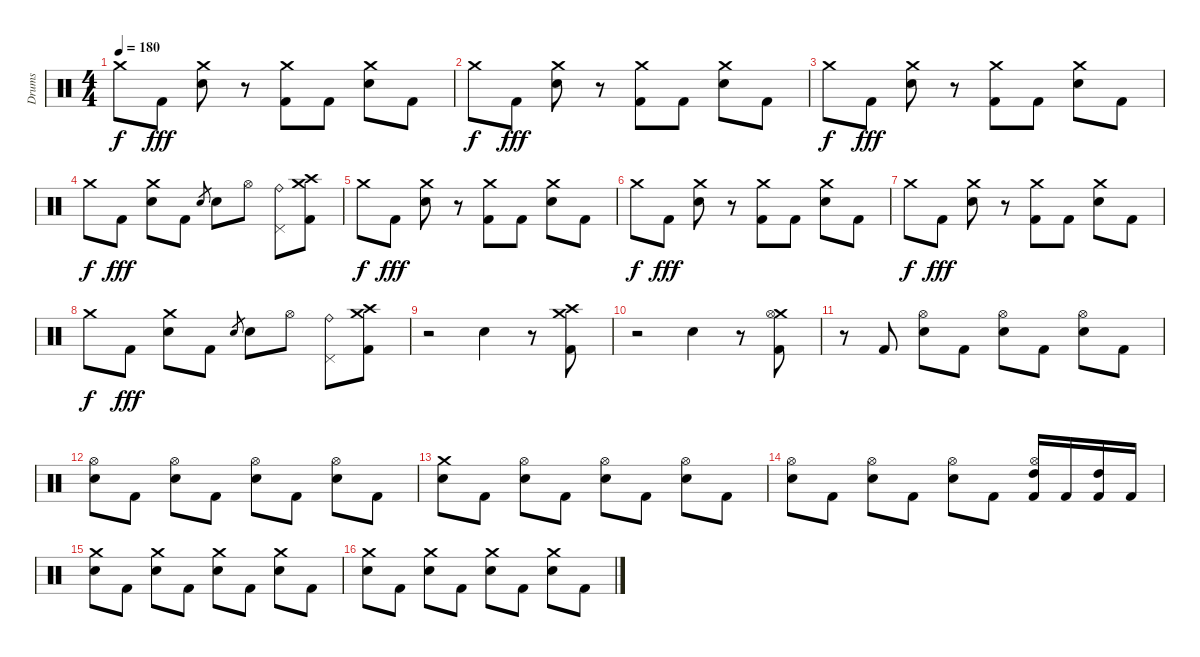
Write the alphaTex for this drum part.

\track ("Drums" "Drums") {instrument percussion}
\staff {score}
\articulation defaults
\ts (4 4)
\tempo 180
\clef neutral
\ks c "Crash medium (hit)".8{dy f} "Kick (hit) 2".8{dy fff}
("Crash medium (hit)" "Electric Snare (hit)").8 r.8 ("Crash medium (hit)" "Kick (hit) 2").8 "Kick (hit) 2".8 ("Crash medium (hit)" "Electric Snare (hit)").8 "Kick (hit) 2".8 |
"Crash medium (hit)".8{dy f} "Kick (hit) 2".8{dy fff} ("Crash medium (hit)" "Electric Snare (hit)").8 r.8 ("Crash medium (hit)" "Kick (hit) 2").8 "Kick (hit) 2".8 ("Crash medium (hit)" "Electric Snare (hit)").8 "Kick (hit) 2".8 |
"Crash medium (hit)".8{dy f} "Kick (hit) 2".8{dy fff} ("Crash medium (hit)" "Electric Snare (hit)").8 r.8 ("Crash medium (hit)" "Kick (hit) 2").8 "Kick (hit) 2".8 ("Crash medium (hit)" "Electric Snare (hit)").8 "Kick (hit) 2".8 |
"Crash medium (hit)".8{dy f} "Kick (hit) 2".8{dy fff} ("Crash medium (hit)" "Electric Snare (hit)").8 "Kick (hit) 2".8 "Electric Snare (hit)".8{gr} "Electric Snare (hit)".8 "Hi-Hat (open)".8 ("Ride (bell)" "Pedal Hi-Hat (hit)").8 ("Crash medium (hit)" "Crash high (hit)" "Kick (hit) 2").8 |
"Crash medium (hit)".8{dy f} "Kick (hit) 2".8{dy fff} ("Crash medium (hit)" "Electric Snare (hit)").8 r.8 ("Crash medium (hit)" "Kick (hit) 2").8 "Kick (hit) 2".8 ("Crash medium (hit)" "Electric Snare (hit)").8 "Kick (hit) 2".8 |
"Crash medium (hit)".8{dy f} "Kick (hit) 2".8{dy fff} ("Crash medium (hit)" "Electric Snare (hit)").8 r.8 ("Crash medium (hit)" "Kick (hit) 2").8 "Kick (hit) 2".8 ("Crash medium (hit)" "Electric Snare (hit)").8 "Kick (hit) 2".8 |
"Crash medium (hit)".8{dy f} "Kick (hit) 2".8{dy fff} ("Crash medium (hit)" "Electric Snare (hit)").8 r.8 ("Crash medium (hit)" "Kick (hit) 2").8 "Kick (hit) 2".8 ("Crash medium (hit)" "Electric Snare (hit)").8 "Kick (hit) 2".8 |
"Crash medium (hit)".8{dy f} "Kick (hit) 2".8{dy fff} ("Crash medium (hit)" "Electric Snare (hit)").8 "Kick (hit) 2".8 "Electric Snare (hit)".8{gr} "Electric Snare (hit)".8 "Hi-Hat (open)".8 ("Ride (bell)" "Pedal Hi-Hat (hit)").8 ("Crash medium (hit)" "Crash high (hit)" "Kick (hit) 2").8 |
r.2 "Electric Snare (hit)".4 r.8 ("Crash medium (hit)" "Crash high (hit)" "Kick (hit) 2").8 |
r.2 "Electric Snare (hit)".4 r.8 ("Crash medium (hit)" "Hi-Hat (open)" "Kick (hit) 2").8 |
r.8 "Kick (hit) 2".8 ("Hi-Hat (open)" "Electric Snare (hit)").8 "Kick (hit) 2".8 ("Hi-Hat (open)" "Electric Snare (hit)").8 "Kick (hit) 2".8 ("Hi-Hat (open)" "Electric Snare (hit)").8 "Kick (hit) 2".8 |
("Hi-Hat (open)" "Electric Snare (hit)").8 "Kick (hit) 2".8 ("Hi-Hat (open)" "Electric Snare (hit)").8 "Kick (hit) 2".8 ("Hi-Hat (open)" "Electric Snare (hit)").8 "Kick (hit) 2".8 ("Hi-Hat (open)" "Electric Snare (hit)").8 "Kick (hit) 2".8 |
("Crash medium (hit)" "Electric Snare (hit)").8 "Kick (hit) 2".8 ("Hi-Hat (open)" "Electric Snare (hit)").8 "Kick (hit) 2".8 ("Hi-Hat (open)" "Electric Snare (hit)").8 "Kick (hit) 2".8 ("Hi-Hat (open)" "Electric Snare (hit)").8 "Kick (hit) 2".8 |
("Hi-Hat (open)" "Electric Snare (hit)").8 "Kick (hit) 2".8 ("Hi-Hat (open)" "Electric Snare (hit)").8 "Kick (hit) 2".8 ("Hi-Hat (open)" "Electric Snare (hit)").8 "Kick (hit) 2".8 ("Hi-Hat (open)" "High Tom (hit)" "Kick (hit) 2").16 "Kick (hit) 2".16 ("High Tom (hit)" "Kick (hit) 2").16 "Kick (hit) 2".16 |
("Crash medium (hit)" "Electric Snare (hit)").8 "Kick (hit) 2".8 ("Crash medium (hit)" "Electric Snare (hit)").8 "Kick (hit) 2".8 ("Crash medium (hit)" "Electric Snare (hit)").8 "Kick (hit) 2".8 ("Crash medium (hit)" "Electric Snare (hit)").8 "Kick (hit) 2".8 |
("Crash medium (hit)" "Electric Snare (hit)").8 "Kick (hit) 2".8 ("Crash medium (hit)" "Electric Snare (hit)").8 "Kick (hit) 2".8 ("Crash medium (hit)" "Electric Snare (hit)").8 "Kick (hit) 2".8 ("Crash medium (hit)" "Electric Snare (hit)").8 "Kick (hit) 2".8
